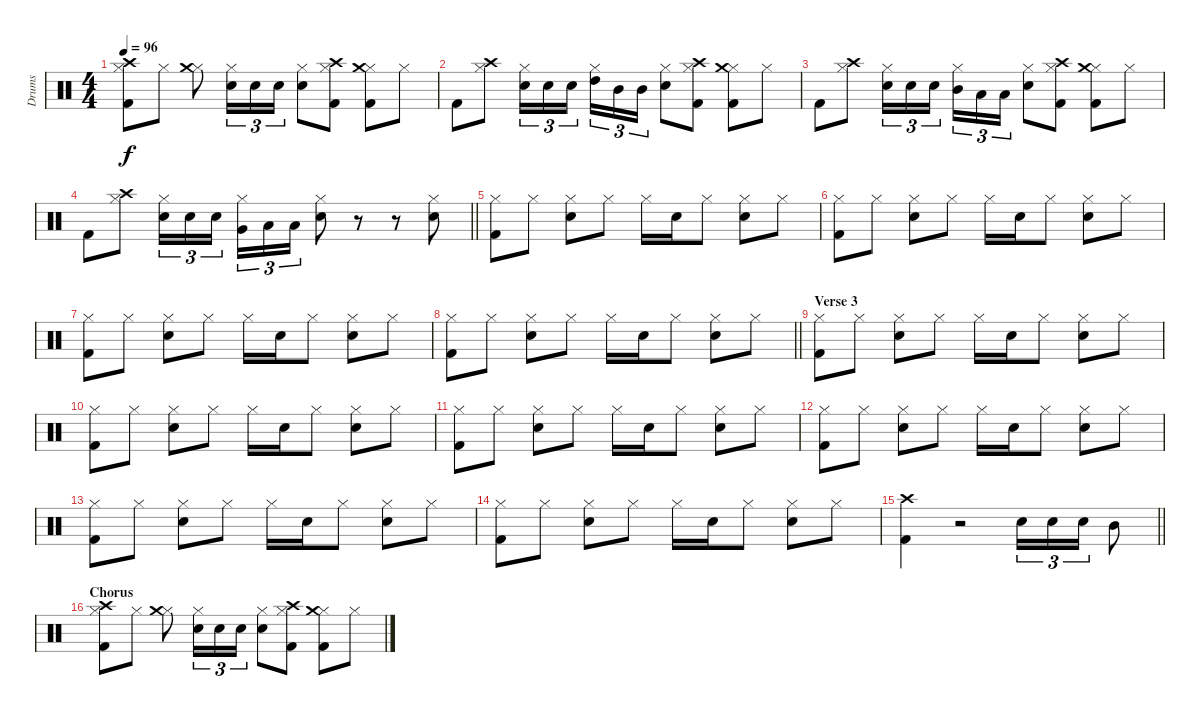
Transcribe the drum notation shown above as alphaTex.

\track ("Drums" "Drums") {instrument percussion}
\staff {score}
\articulation defaults
\ts (4 4)
\tempo 96
\clef neutral
\ks c
("Kick (hit) 2" "Hi-Hat (closed)" "Crash high (hit)").8{dy f} "Hi-Hat (closed)".8 ("Hi-Hat (closed)" "Crash medium (hit)").8 ("Snare (hit) 2" "Hi-Hat (closed)").16{tu (3 2)} "Snare (hit) 2".16{tu (3 2)} "Snare (hit) 2".16{tu (3 2)} ("Snare (hit) 2" "Hi-Hat (closed)").8 ("Kick (hit) 2" "Hi-Hat (closed)" "Crash high (hit)").8 ("Kick (hit) 2" "Hi-Hat (closed)" "Crash medium (hit)").8 "Hi-Hat (closed)".8 |
"Kick (hit) 2".8 ("Hi-Hat (closed)" "Crash high (hit)").8 ("Snare (hit) 2" "Hi-Hat (closed)").16{tu (3 2)} "Snare (hit) 2".16{tu (3 2)} "Snare (hit) 2".16{tu (3 2) beam splitsecondary} ("Hi-Hat (closed)" "High Tom (hit)").16{tu (3 2)} "Mid Tom (hit)".16{tu (3 2)} "Mid Tom (hit)".16{tu (3 2)} ("Snare (hit) 2" "Hi-Hat (closed)").8 ("Kick (hit) 2" "Hi-Hat (closed)" "Crash high (hit)").8 ("Kick (hit) 2" "Hi-Hat (closed)" "Crash medium (hit)").8 "Hi-Hat (closed)".8 |
"Kick (hit) 2".8 ("Hi-Hat (closed)" "Crash high (hit)").8 ("Snare (hit) 2" "Hi-Hat (closed)").16{tu (3 2)} "Snare (hit) 2".16{tu (3 2)} "Snare (hit) 2".16{tu (3 2) beam splitsecondary} ("Hi-Hat (closed)" "Mid Tom (hit)").16{tu (3 2)} "Low Tom (hit)".16{tu (3 2)} "Low Tom (hit)".16{tu (3 2)} ("Snare (hit) 2" "Hi-Hat (closed)").8 ("Kick (hit) 2" "Hi-Hat (closed)" "Crash high (hit)").8 ("Kick (hit) 2" "Hi-Hat (closed)" "Crash medium (hit)").8 "Hi-Hat (closed)".8 |
\barLineRight lightlight "Kick (hit) 2".8
("Hi-Hat (closed)" "Crash high (hit)").8 ("Snare (hit) 2" "Hi-Hat (closed)").16{tu (3 2)} "Snare (hit) 2".16{tu (3 2)} "Snare (hit) 2".16{tu (3 2) beam splitsecondary} ("Hi-Hat (closed)" "Very Low Tom (hit)").16{tu (3 2)} "Low Floor Tom (hit)".16{tu (3 2)} "Low Floor Tom (hit)".16{tu (3 2)} ("Snare (hit) 2" "Hi-Hat (closed)").8 r.8 r.8 ("Snare (hit) 2" "Hi-Hat (closed)").8 |
("Kick (hit) 2" "Hi-Hat (closed)").8 "Hi-Hat (closed)".8 ("Snare (hit) 2" "Hi-Hat (closed)").8 "Hi-Hat (closed)".8 "Hi-Hat (closed)".16 "Snare (hit) 2".16 "Hi-Hat (closed)".8 ("Snare (hit) 2" "Hi-Hat (closed)").8 "Hi-Hat (closed)".8 |
("Kick (hit) 2" "Hi-Hat (closed)").8 "Hi-Hat (closed)".8 ("Snare (hit) 2" "Hi-Hat (closed)").8 "Hi-Hat (closed)".8 "Hi-Hat (closed)".16 "Snare (hit) 2".16 "Hi-Hat (closed)".8 ("Snare (hit) 2" "Hi-Hat (closed)").8 "Hi-Hat (closed)".8 |
("Kick (hit) 2" "Hi-Hat (closed)").8 "Hi-Hat (closed)".8 ("Snare (hit) 2" "Hi-Hat (closed)").8 "Hi-Hat (closed)".8 "Hi-Hat (closed)".16 "Snare (hit) 2".16 "Hi-Hat (closed)".8 ("Snare (hit) 2" "Hi-Hat (closed)").8 "Hi-Hat (closed)".8 |
\barLineRight lightlight
("Kick (hit) 2" "Hi-Hat (closed)").8 "Hi-Hat (closed)".8 ("Snare (hit) 2" "Hi-Hat (closed)").8 "Hi-Hat (closed)".8 "Hi-Hat (closed)".16 "Snare (hit) 2".16 "Hi-Hat (closed)".8 ("Snare (hit) 2" "Hi-Hat (closed)").8 "Hi-Hat (closed)".8 |
\section ("" "Verse 3")
("Kick (hit) 2" "Hi-Hat (closed)").8 "Hi-Hat (closed)".8 ("Snare (hit) 2" "Hi-Hat (closed)").8 "Hi-Hat (closed)".8 "Hi-Hat (closed)".16 "Snare (hit) 2".16 "Hi-Hat (closed)".8 ("Snare (hit) 2" "Hi-Hat (closed)").8 "Hi-Hat (closed)".8 |
("Kick (hit) 2" "Hi-Hat (closed)").8 "Hi-Hat (closed)".8 ("Snare (hit) 2" "Hi-Hat (closed)").8 "Hi-Hat (closed)".8 "Hi-Hat (closed)".16 "Snare (hit) 2".16 "Hi-Hat (closed)".8 ("Snare (hit) 2" "Hi-Hat (closed)").8 "Hi-Hat (closed)".8 |
("Kick (hit) 2" "Hi-Hat (closed)").8 "Hi-Hat (closed)".8 ("Snare (hit) 2" "Hi-Hat (closed)").8 "Hi-Hat (closed)".8 "Hi-Hat (closed)".16 "Snare (hit) 2".16 "Hi-Hat (closed)".8 ("Snare (hit) 2" "Hi-Hat (closed)").8 "Hi-Hat (closed)".8 |
("Kick (hit) 2" "Hi-Hat (closed)").8 "Hi-Hat (closed)".8 ("Snare (hit) 2" "Hi-Hat (closed)").8 "Hi-Hat (closed)".8 "Hi-Hat (closed)".16 "Snare (hit) 2".16 "Hi-Hat (closed)".8 ("Snare (hit) 2" "Hi-Hat (closed)").8 "Hi-Hat (closed)".8 |
("Kick (hit) 2" "Hi-Hat (closed)").8 "Hi-Hat (closed)".8 ("Snare (hit) 2" "Hi-Hat (closed)").8 "Hi-Hat (closed)".8 "Hi-Hat (closed)".16 "Snare (hit) 2".16 "Hi-Hat (closed)".8 ("Snare (hit) 2" "Hi-Hat (closed)").8 "Hi-Hat (closed)".8 |
("Kick (hit) 2" "Hi-Hat (closed)").8 "Hi-Hat (closed)".8 ("Snare (hit) 2" "Hi-Hat (closed)").8 "Hi-Hat (closed)".8 "Hi-Hat (closed)".16 "Snare (hit) 2".16 "Hi-Hat (closed)".8 ("Snare (hit) 2" "Hi-Hat (closed)").8 "Hi-Hat (closed)".8 |
\barLineRight lightlight
("Kick (hit) 2" "Crash high (hit)").4 r.2 "Snare (hit) 2".16{tu (3 2)} "Snare (hit) 2".16{tu (3 2)} "Snare (hit) 2".16{tu (3 2)} "Mid Tom (hit)".8 |
\section ("" "Chorus")
("Kick (hit) 2" "Hi-Hat (closed)" "Crash high (hit)").8 "Hi-Hat (closed)".8 ("Hi-Hat (closed)" "Crash medium (hit)").8 ("Snare (hit) 2" "Hi-Hat (closed)").16{tu (3 2)} "Snare (hit) 2".16{tu (3 2)} "Snare (hit) 2".16{tu (3 2)} ("Snare (hit) 2" "Hi-Hat (closed)").8 ("Kick (hit) 2" "Hi-Hat (closed)" "Crash high (hit)").8 ("Kick (hit) 2" "Hi-Hat (closed)" "Crash medium (hit)").8 "Hi-Hat (closed)".8
